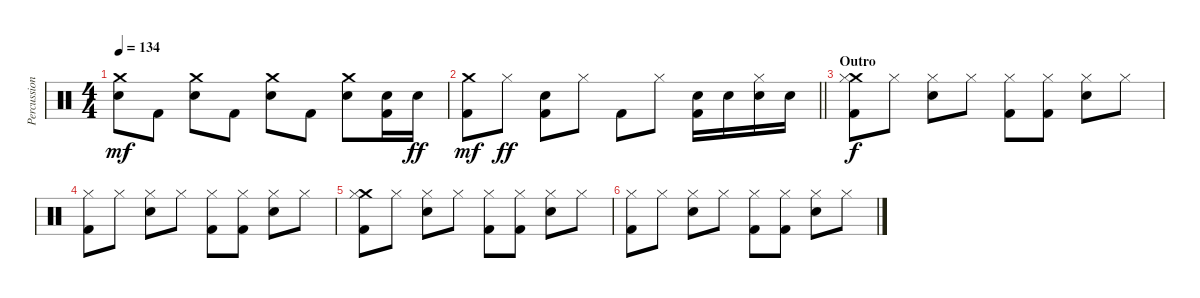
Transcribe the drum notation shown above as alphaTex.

\track ("Percussion" "Percussion") {instrument percussion}
\staff {score}
\articulation defaults
\ts (4 4)
\tempo 134
\clef neutral
\ks c
("Crash medium (hit)" "Snare (hit) 2").8{dy mf} "Kick (hit) 2".8 ("Crash medium (hit)" "Snare (hit) 2").8 "Kick (hit) 2".8 ("Crash medium (hit)" "Snare (hit) 2").8 "Kick (hit) 2".8 ("Crash medium (hit)" "Snare (hit) 2").8 ("Snare (hit) 2" "Kick (hit) 2").16 "Snare (hit) 2".16{dy ff} |
\barLineRight lightlight
("Crash medium (hit)" "Kick (hit) 2").8{dy mf} "Hi-Hat (closed)".8{dy ff} ("Snare (hit) 2" "Kick (hit) 2").8 "Hi-Hat (closed)".8 "Kick (hit) 2".8 "Hi-Hat (closed)".8 ("Snare (hit) 2" "Kick (hit) 2").16 "Snare (hit) 2".16 ("Hi-Hat (closed)" "Snare (hit) 2").16 "Snare (hit) 2".16 |
\section ("" "Outro")
("Crash medium (hit)" "Hi-Hat (closed)" "Kick (hit) 2").8{dy f} "Hi-Hat (closed)".8 ("Hi-Hat (closed)" "Snare (hit) 2").8 "Hi-Hat (closed)".8 ("Hi-Hat (closed)" "Kick (hit) 2").8 ("Hi-Hat (closed)" "Kick (hit) 2").8 ("Hi-Hat (closed)" "Snare (hit) 2").8 "Hi-Hat (closed)".8 |
("Hi-Hat (closed)" "Kick (hit) 2").8 "Hi-Hat (closed)".8 ("Hi-Hat (closed)" "Snare (hit) 2").8 "Hi-Hat (closed)".8 ("Hi-Hat (closed)" "Kick (hit) 2").8 ("Hi-Hat (closed)" "Kick (hit) 2").8 ("Hi-Hat (closed)" "Snare (hit) 2").8 "Hi-Hat (closed)".8 |
("Crash medium (hit)" "Hi-Hat (closed)" "Kick (hit) 2").8 "Hi-Hat (closed)".8 ("Hi-Hat (closed)" "Snare (hit) 2").8 "Hi-Hat (closed)".8 ("Hi-Hat (closed)" "Kick (hit) 2").8 ("Hi-Hat (closed)" "Kick (hit) 2").8 ("Hi-Hat (closed)" "Snare (hit) 2").8 "Hi-Hat (closed)".8 |
("Hi-Hat (closed)" "Kick (hit) 2").8 "Hi-Hat (closed)".8 ("Hi-Hat (closed)" "Snare (hit) 2").8 "Hi-Hat (closed)".8 ("Hi-Hat (closed)" "Kick (hit) 2").8 ("Hi-Hat (closed)" "Kick (hit) 2").8 ("Hi-Hat (closed)" "Snare (hit) 2").8 "Hi-Hat (closed)".8
